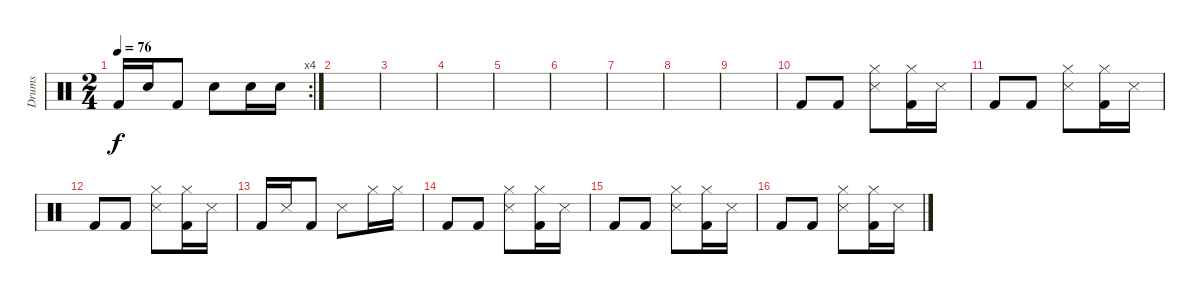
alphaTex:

\track ("Drums" "Drums") {instrument percussion}
\staff {score}
\articulation defaults
\rc 4
\ts (2 4)
\tempo 76
\clef neutral
\ks c "Kick (hit) 2".16{dy f} "Electric Snare (hit)".16 "Kick (hit) 2".8 "Electric Snare (hit)".8 "Electric Snare (hit)".16 "Electric Snare (hit)".16
|
|
|
|
|
|
|
|
|
"Kick (hit) 2".8 "Kick (hit) 2".8 ("Snare (side stick) 3" "Hi-Hat (closed)").8 ("Kick (hit) 2" "Hi-Hat (closed)").16 "Snare (side stick) 3".16 |
"Kick (hit) 2".8 "Kick (hit) 2".8 ("Snare (side stick) 3" "Hi-Hat (closed)").8 ("Kick (hit) 2" "Hi-Hat (closed)").16 "Snare (side stick) 3".16 |
"Kick (hit) 2".8 "Kick (hit) 2".8 ("Snare (side stick) 3" "Hi-Hat (closed)").8 ("Kick (hit) 2" "Hi-Hat (closed)").16 "Snare (side stick) 3".16 |
"Kick (hit) 2".16 "Snare (side stick) 3".16 "Kick (hit) 2".8 "Snare (side stick) 3".8 "Hi-Hat (closed)".16 "Hi-Hat (closed)".16 |
"Kick (hit) 2".8 "Kick (hit) 2".8 ("Snare (side stick) 3" "Hi-Hat (closed)").8 ("Kick (hit) 2" "Hi-Hat (closed)").16 "Snare (side stick) 3".16 |
"Kick (hit) 2".8 "Kick (hit) 2".8 ("Snare (side stick) 3" "Hi-Hat (closed)").8 ("Kick (hit) 2" "Hi-Hat (closed)").16 "Snare (side stick) 3".16 |
"Kick (hit) 2".8 "Kick (hit) 2".8 ("Snare (side stick) 3" "Hi-Hat (closed)").8 ("Kick (hit) 2" "Hi-Hat (closed)").16 "Snare (side stick) 3".16
